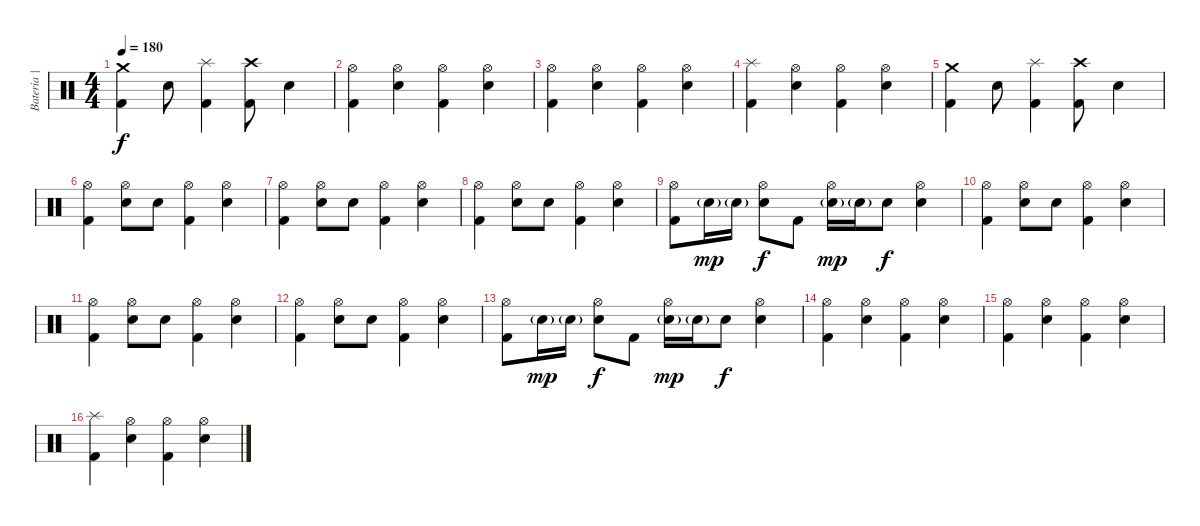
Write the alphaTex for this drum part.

\track ("Bateria | Fábio" "Bateria | ") {instrument percussion}
\staff {score}
\articulation defaults
\ts (4 4)
\tempo 180
\clef neutral
\ks c
("Crash medium (hit)" "Kick (hit) 2").4{dy f} "Snare (hit) 2".8 ("Splash (hit)" "Kick (hit) 2").4 ("Crash high (hit)" "Kick (hit) 2").8 "Snare (hit) 2".4 |
("Hi-Hat (open)" "Kick (hit) 2").4 ("Hi-Hat (open)" "Snare (hit) 2").4 ("Hi-Hat (open)" "Kick (hit) 2").4 ("Hi-Hat (open)" "Snare (hit) 2").4 |
("Hi-Hat (open)" "Kick (hit) 2").4 ("Hi-Hat (open)" "Snare (hit) 2").4 ("Hi-Hat (open)" "Kick (hit) 2").4 ("Hi-Hat (open)" "Snare (hit) 2").4 |
("Splash (hit)" "Kick (hit) 2").4 ("Hi-Hat (open)" "Snare (hit) 2").4 ("Hi-Hat (open)" "Kick (hit) 2").4 ("Hi-Hat (open)" "Snare (hit) 2").4 |
("Crash medium (hit)" "Kick (hit) 2").4 "Snare (hit) 2".8 ("Splash (hit)" "Kick (hit) 2").4 ("Crash high (hit)" "Kick (hit) 2").8 "Snare (hit) 2".4 |
("Hi-Hat (open)" "Kick (hit) 2").4 ("Hi-Hat (open)" "Snare (hit) 2").8 "Snare (hit) 2".8 ("Hi-Hat (open)" "Kick (hit) 2").4 ("Hi-Hat (open)" "Snare (hit) 2").4 |
("Hi-Hat (open)" "Kick (hit) 2").4 ("Hi-Hat (open)" "Snare (hit) 2").8 "Snare (hit) 2".8 ("Hi-Hat (open)" "Kick (hit) 2").4 ("Hi-Hat (open)" "Snare (hit) 2").4 |
("Hi-Hat (open)" "Kick (hit) 2").4 ("Hi-Hat (open)" "Snare (hit) 2").8 "Snare (hit) 2".8 ("Hi-Hat (open)" "Kick (hit) 2").4 ("Hi-Hat (open)" "Snare (hit) 2").4 |
("Hi-Hat (open)" "Kick (hit) 2").8 "Snare (hit) 2"{g}.16{dy mp} "Snare (hit) 2"{g}.16 ("Hi-Hat (open)" "Snare (hit) 2").8{dy f} "Kick (hit) 2".8 ("Hi-Hat (open)" "Snare (hit) 2"{g}).16{dy mp} "Snare (hit) 2"{g}.16 "Snare (hit) 2".8{dy f} ("Hi-Hat (open)" "Snare (hit) 2").4 |
("Hi-Hat (open)" "Kick (hit) 2").4 ("Hi-Hat (open)" "Snare (hit) 2").8 "Snare (hit) 2".8 ("Hi-Hat (open)" "Kick (hit) 2").4 ("Hi-Hat (open)" "Snare (hit) 2").4 |
("Hi-Hat (open)" "Kick (hit) 2").4 ("Hi-Hat (open)" "Snare (hit) 2").8 "Snare (hit) 2".8 ("Hi-Hat (open)" "Kick (hit) 2").4 ("Hi-Hat (open)" "Snare (hit) 2").4 |
("Hi-Hat (open)" "Kick (hit) 2").4 ("Hi-Hat (open)" "Snare (hit) 2").8 "Snare (hit) 2".8 ("Hi-Hat (open)" "Kick (hit) 2").4 ("Hi-Hat (open)" "Snare (hit) 2").4 |
("Hi-Hat (open)" "Kick (hit) 2").8 "Snare (hit) 2"{g}.16{dy mp} "Snare (hit) 2"{g}.16 ("Hi-Hat (open)" "Snare (hit) 2").8{dy f} "Kick (hit) 2".8 ("Hi-Hat (open)" "Snare (hit) 2"{g}).16{dy mp} "Snare (hit) 2"{g}.16 "Snare (hit) 2".8{dy f} ("Hi-Hat (open)" "Snare (hit) 2").4 |
("Hi-Hat (open)" "Kick (hit) 2").4 ("Hi-Hat (open)" "Snare (hit) 2").4 ("Hi-Hat (open)" "Kick (hit) 2").4 ("Hi-Hat (open)" "Snare (hit) 2").4 |
("Hi-Hat (open)" "Kick (hit) 2").4 ("Hi-Hat (open)" "Snare (hit) 2").4 ("Hi-Hat (open)" "Kick (hit) 2").4 ("Hi-Hat (open)" "Snare (hit) 2").4 |
("Splash (hit)" "Kick (hit) 2").4 ("Hi-Hat (open)" "Snare (hit) 2").4 ("Hi-Hat (open)" "Kick (hit) 2").4 ("Hi-Hat (open)" "Snare (hit) 2").4
